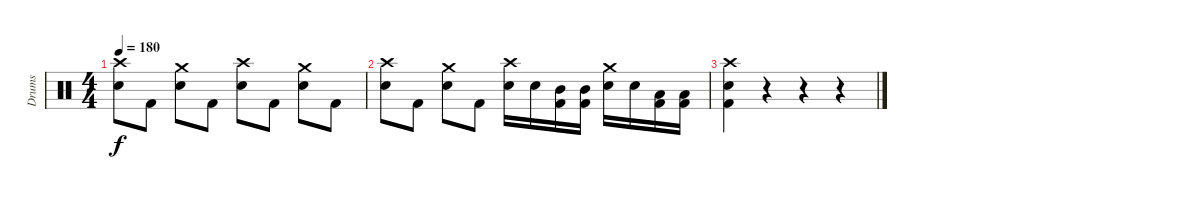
\track ("Drums" "Drums") {instrument percussion}
\staff {score}
\articulation defaults
\ts (4 4)
\tempo 180
\clef neutral
\ks c
("Crash high (hit)" "Snare (hit) 2").8{dy f} "Kick (hit) 2".8 ("Crash medium (hit)" "Snare (hit) 2").8 "Kick (hit) 2".8 ("Crash high (hit)" "Snare (hit) 2").8 "Kick (hit) 2".8 ("Crash medium (hit)" "Snare (hit) 2").8 "Kick (hit) 2".8 |
("Crash high (hit)" "Snare (hit) 2").8 "Kick (hit) 2".8 ("Crash medium (hit)" "Snare (hit) 2").8 "Kick (hit) 2".8 ("Crash high (hit)" "Snare (hit) 2").16 "Snare (hit) 2".16 ("Mid Tom (hit)" "Kick (hit) 2").16 ("Mid Tom (hit)" "Kick (hit) 2").16 ("Crash medium (hit)" "Snare (hit) 2").16 "Snare (hit) 2".16 ("Low Tom (hit)" "Kick (hit) 2").16 ("Low Tom (hit)" "Kick (hit) 2").16 |
("Crash high (hit)" "Snare (hit) 2" "Kick (hit) 2").4 r.4 r.4 r.4
